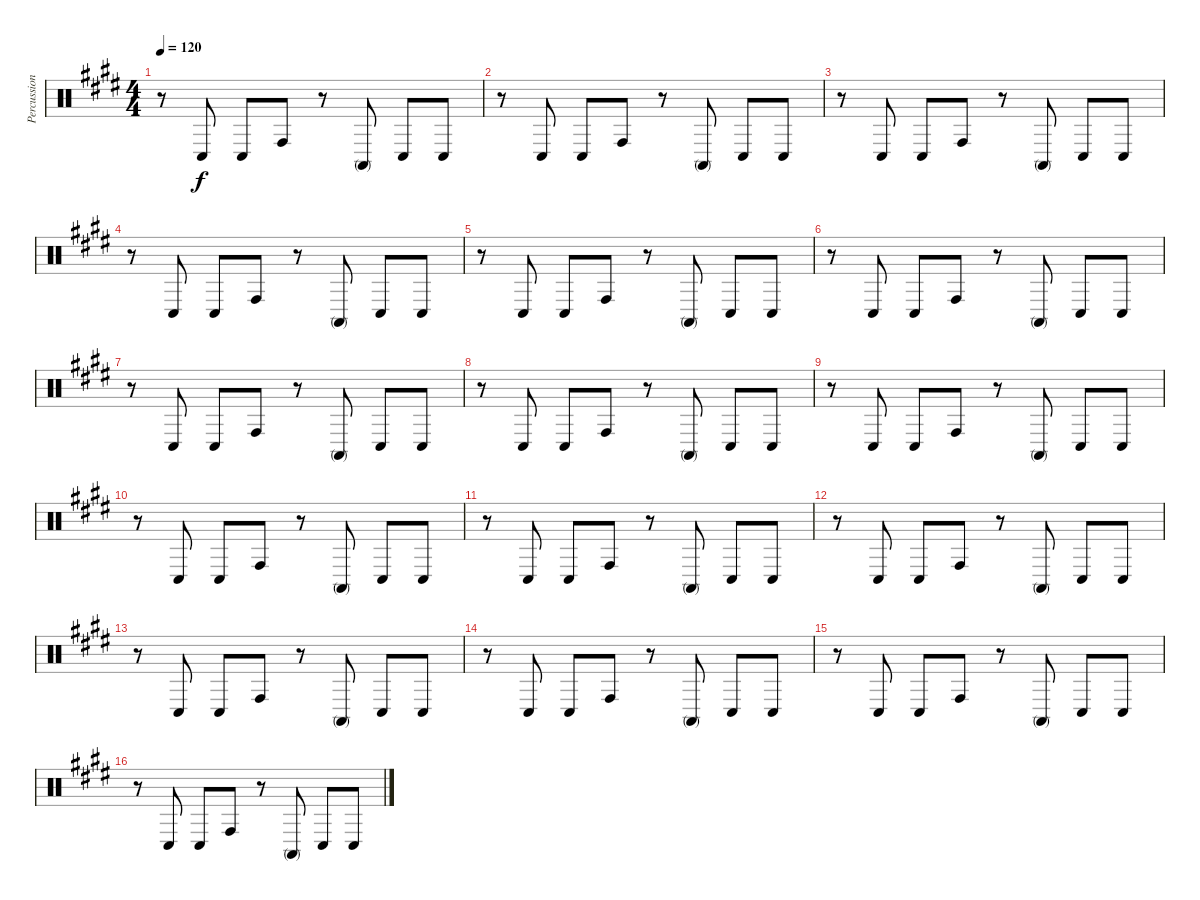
\track ("Percussion" "Percussion") {instrument percussion}
\staff {score}
\articulation defaults
\ts (4 4)
\tempo 120
\clef neutral
\ks e
r.8{dy f} "Conga low (hit)".8 "Conga low (hit)".8 "Conga high (hit)".8 r.8 "Conga high (mute)".8 "Conga low (hit)".8 "Conga low (hit)".8 |
r.8 "Conga low (hit)".8 "Conga low (hit)".8 "Conga high (hit)".8 r.8 "Conga high (mute)".8 "Conga low (hit)".8 "Conga low (hit)".8 |
r.8 "Conga low (hit)".8 "Conga low (hit)".8 "Conga high (hit)".8 r.8 "Conga high (mute)".8 "Conga low (hit)".8 "Conga low (hit)".8 |
r.8 "Conga low (hit)".8 "Conga low (hit)".8 "Conga high (hit)".8 r.8 "Conga high (mute)".8 "Conga low (hit)".8 "Conga low (hit)".8 |
r.8 "Conga low (hit)".8 "Conga low (hit)".8 "Conga high (hit)".8 r.8 "Conga high (mute)".8 "Conga low (hit)".8 "Conga low (hit)".8 |
r.8 "Conga low (hit)".8 "Conga low (hit)".8 "Conga high (hit)".8 r.8 "Conga high (mute)".8 "Conga low (hit)".8 "Conga low (hit)".8 |
r.8 "Conga low (hit)".8 "Conga low (hit)".8 "Conga high (hit)".8 r.8 "Conga high (mute)".8 "Conga low (hit)".8 "Conga low (hit)".8 |
r.8 "Conga low (hit)".8 "Conga low (hit)".8 "Conga high (hit)".8 r.8 "Conga high (mute)".8 "Conga low (hit)".8 "Conga low (hit)".8 |
r.8 "Conga low (hit)".8 "Conga low (hit)".8 "Conga high (hit)".8 r.8 "Conga high (mute)".8 "Conga low (hit)".8 "Conga low (hit)".8 |
r.8 "Conga low (hit)".8 "Conga low (hit)".8 "Conga high (hit)".8 r.8 "Conga high (mute)".8 "Conga low (hit)".8 "Conga low (hit)".8 |
r.8 "Conga low (hit)".8 "Conga low (hit)".8 "Conga high (hit)".8 r.8 "Conga high (mute)".8 "Conga low (hit)".8 "Conga low (hit)".8 |
r.8 "Conga low (hit)".8 "Conga low (hit)".8 "Conga high (hit)".8 r.8 "Conga high (mute)".8 "Conga low (hit)".8 "Conga low (hit)".8 |
r.8 "Conga low (hit)".8 "Conga low (hit)".8 "Conga high (hit)".8 r.8 "Conga high (mute)".8 "Conga low (hit)".8 "Conga low (hit)".8 |
r.8 "Conga low (hit)".8 "Conga low (hit)".8 "Conga high (hit)".8 r.8 "Conga high (mute)".8 "Conga low (hit)".8 "Conga low (hit)".8 |
r.8 "Conga low (hit)".8 "Conga low (hit)".8 "Conga high (hit)".8 r.8 "Conga high (mute)".8 "Conga low (hit)".8 "Conga low (hit)".8 |
r.8 "Conga low (hit)".8 "Conga low (hit)".8 "Conga high (hit)".8 r.8 "Conga high (mute)".8 "Conga low (hit)".8 "Conga low (hit)".8
